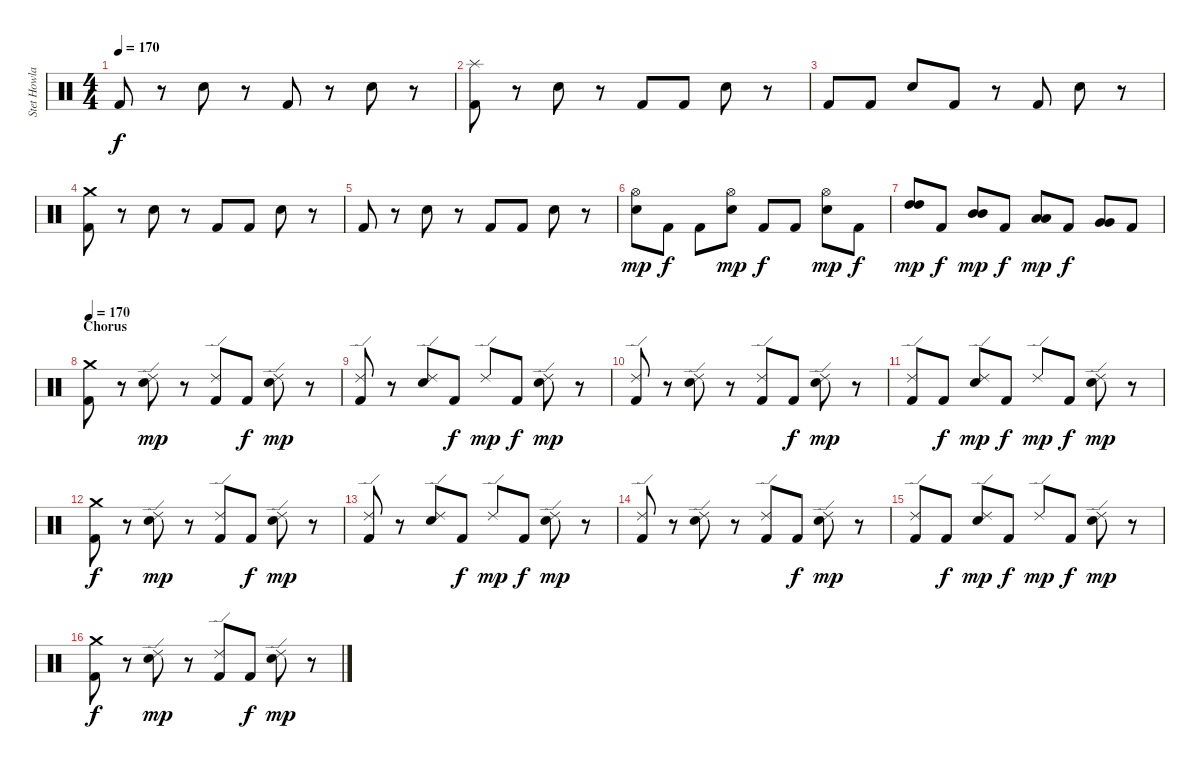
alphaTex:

\track ("Stet Howland" "Stet Howla") {instrument percussion}
\staff {score}
\articulation defaults
\ts (4 4)
\tempo 170
\clef neutral
\ks c "Kick (hit) 2".8{dy f}
r.8 "Electric Snare (hit)".8 r.8 "Kick (hit) 2".8 r.8 "Electric Snare (hit)".8 r.8 |
("Splash (hit)" "Kick (hit) 2").8 r.8 "Electric Snare (hit)".8 r.8 "Kick (hit) 2".8 "Kick (hit) 2".8 "Electric Snare (hit)".8 r.8 |
"Kick (hit) 2".8 "Kick (hit) 2".8 "Electric Snare (hit)".8 "Kick (hit) 2".8 r.8 "Kick (hit) 2".8 "Electric Snare (hit)".8 r.8 |
("Crash medium (hit)" "Kick (hit) 2").8 r.8 "Electric Snare (hit)".8 r.8 "Kick (hit) 2".8 "Kick (hit) 2".8 "Electric Snare (hit)".8 r.8 |
"Kick (hit) 2".8 r.8 "Electric Snare (hit)".8 r.8 "Kick (hit) 2".8 "Kick (hit) 2".8 "Electric Snare (hit)".8 r.8 |
("Hi-Hat (open)" "Electric Snare (hit)").8{dy mp} "Kick (hit) 2".8{dy f} "Kick (hit) 2".8 ("Hi-Hat (open)" "Electric Snare (hit)").8{dy mp} "Kick (hit) 2".8{dy f} "Kick (hit) 2".8 ("Hi-Hat (open)" "Electric Snare (hit)").8{dy mp} "Kick (hit) 2".8{dy f} |
("High Tom (hit)" "High Tom (hit)").8{dy mp} "Kick (hit) 2".8{dy f} ("Mid Tom (hit)" "Mid Tom (hit)").8{dy mp} "Kick (hit) 2".8{dy f} ("Low Tom (hit)" "Low Tom (hit)").8{dy mp} "Kick (hit) 2".8{dy f} ("Very Low Tom (hit)" "Very Low Tom (hit)").8 "Kick (hit) 2".8 |
\section ("" "Chorus")
\tempo 170
("Crash medium (hit)" "Kick (hit) 2").8 r.8 ("Ride (edge) 2" "Electric Snare (hit)").8{dy mp} r.8 ("Ride (edge) 2" "Kick (hit) 2").8 "Kick (hit) 2".8{dy f} ("Ride (edge) 2" "Electric Snare (hit)").8{dy mp} r.8 |
("Ride (edge) 2" "Kick (hit) 2").8 r.8 ("Ride (edge) 2" "Electric Snare (hit)").8 "Kick (hit) 2".8{dy f} "Ride (edge) 2".8{dy mp} "Kick (hit) 2".8{dy f} ("Ride (edge) 2" "Electric Snare (hit)").8{dy mp} r.8 |
("Ride (edge) 2" "Kick (hit) 2").8 r.8 ("Ride (edge) 2" "Electric Snare (hit)").8 r.8 ("Ride (edge) 2" "Kick (hit) 2").8 "Kick (hit) 2".8{dy f} ("Ride (edge) 2" "Electric Snare (hit)").8{dy mp} r.8 |
("Ride (edge) 2" "Kick (hit) 2").8 "Kick (hit) 2".8{dy f} ("Ride (edge) 2" "Electric Snare (hit)").8{dy mp} "Kick (hit) 2".8{dy f} "Ride (edge) 2".8{dy mp} "Kick (hit) 2".8{dy f} ("Ride (edge) 2" "Electric Snare (hit)").8{dy mp} r.8 |
("Crash medium (hit)" "Kick (hit) 2").8{dy f} r.8 ("Ride (edge) 2" "Electric Snare (hit)").8{dy mp} r.8 ("Ride (edge) 2" "Kick (hit) 2").8 "Kick (hit) 2".8{dy f} ("Ride (edge) 2" "Electric Snare (hit)").8{dy mp} r.8 |
("Ride (edge) 2" "Kick (hit) 2").8 r.8 ("Ride (edge) 2" "Electric Snare (hit)").8 "Kick (hit) 2".8{dy f} "Ride (edge) 2".8{dy mp} "Kick (hit) 2".8{dy f} ("Ride (edge) 2" "Electric Snare (hit)").8{dy mp} r.8 |
("Ride (edge) 2" "Kick (hit) 2").8 r.8 ("Ride (edge) 2" "Electric Snare (hit)").8 r.8 ("Ride (edge) 2" "Kick (hit) 2").8 "Kick (hit) 2".8{dy f} ("Ride (edge) 2" "Electric Snare (hit)").8{dy mp} r.8 |
("Ride (edge) 2" "Kick (hit) 2").8 "Kick (hit) 2".8{dy f} ("Ride (edge) 2" "Electric Snare (hit)").8{dy mp} "Kick (hit) 2".8{dy f} "Ride (edge) 2".8{dy mp} "Kick (hit) 2".8{dy f} ("Ride (edge) 2" "Electric Snare (hit)").8{dy mp} r.8 |
("Crash medium (hit)" "Kick (hit) 2").8{dy f} r.8 ("Ride (edge) 2" "Electric Snare (hit)").8{dy mp} r.8 ("Ride (edge) 2" "Kick (hit) 2").8 "Kick (hit) 2".8{dy f} ("Ride (edge) 2" "Electric Snare (hit)").8{dy mp} r.8
